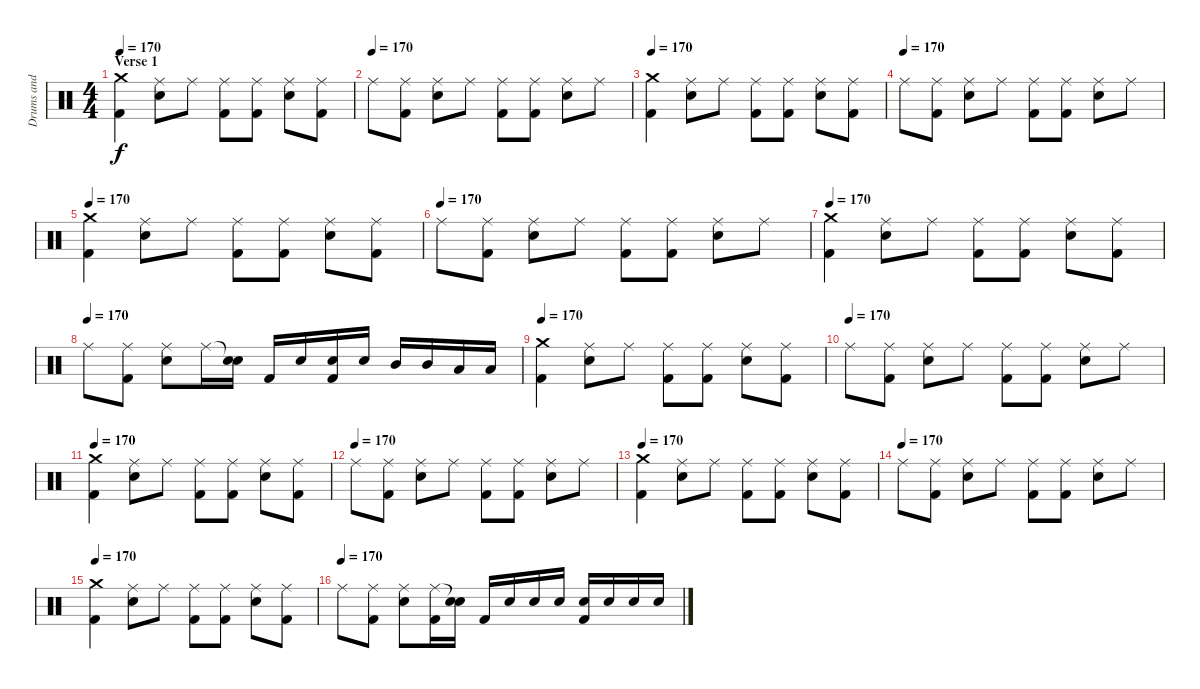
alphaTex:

\track ("Drums and Percussion" "Drums and ") {instrument percussion}
\staff {score}
\articulation defaults
\ts (4 4)
\section ("" "Verse 1")
\tempo 170
\clef neutral
\ks c
("Crash medium (hit)" "Kick (hit) 2").4{dy f} ("Ride (middle)" "Electric Snare (hit)").8 "Ride (middle)".8 ("Ride (middle)" "Kick (hit) 2").8 ("Ride (middle)" "Kick (hit) 2").8 ("Ride (middle)" "Electric Snare (hit)").8 ("Ride (middle)" "Kick (hit) 2").8 |
\tempo (170)
"Ride (middle)".8 ("Ride (middle)" "Kick (hit) 2").8 ("Ride (middle)" "Electric Snare (hit)").8 "Ride (middle)".8 ("Ride (middle)" "Kick (hit) 2").8 ("Ride (middle)" "Kick (hit) 2").8 ("Ride (middle)" "Electric Snare (hit)").8 "Ride (middle)".8 |
\tempo 170
("Crash medium (hit)" "Kick (hit) 2").4 ("Ride (middle)" "Electric Snare (hit)").8 "Ride (middle)".8 ("Ride (middle)" "Kick (hit) 2").8 ("Ride (middle)" "Kick (hit) 2").8 ("Ride (middle)" "Electric Snare (hit)").8 ("Ride (middle)" "Kick (hit) 2").8 |
\tempo (170)
"Ride (middle)".8 ("Ride (middle)" "Kick (hit) 2").8 ("Ride (middle)" "Electric Snare (hit)").8 "Ride (middle)".8 ("Ride (middle)" "Kick (hit) 2").8 ("Ride (middle)" "Kick (hit) 2").8 ("Ride (middle)" "Electric Snare (hit)").8 "Ride (middle)".8 |
\tempo 170
("Crash medium (hit)" "Kick (hit) 2").4 ("Ride (middle)" "Electric Snare (hit)").8 "Ride (middle)".8 ("Ride (middle)" "Kick (hit) 2").8 ("Ride (middle)" "Kick (hit) 2").8 ("Ride (middle)" "Electric Snare (hit)").8 ("Ride (middle)" "Kick (hit) 2").8 |
\tempo (170)
"Ride (middle)".8 ("Ride (middle)" "Kick (hit) 2").8 ("Ride (middle)" "Electric Snare (hit)").8 "Ride (middle)".8 ("Ride (middle)" "Kick (hit) 2").8 ("Ride (middle)" "Kick (hit) 2").8 ("Ride (middle)" "Electric Snare (hit)").8 "Ride (middle)".8 |
\tempo 170
("Crash medium (hit)" "Kick (hit) 2").4 ("Ride (middle)" "Electric Snare (hit)").8 "Ride (middle)".8 ("Ride (middle)" "Kick (hit) 2").8 ("Ride (middle)" "Kick (hit) 2").8 ("Ride (middle)" "Electric Snare (hit)").8 ("Ride (middle)" "Kick (hit) 2").8 |
\tempo (170)
"Ride (middle)".8 ("Ride (middle)" "Kick (hit) 2").8 ("Ride (middle)" "Electric Snare (hit)").8 "Ride (middle)".16 ("Snare (hit)"{t} "Electric Snare (hit)").16 "Kick (hit) 2".16 "Electric Snare (hit)".16 ("Electric Snare (hit)" "Kick (hit) 2").16 "Electric Snare (hit)".16 "Mid Tom (hit)".16 "Mid Tom (hit)".16 "Low Tom (hit)".16 "Low Tom (hit)".16 |
\tempo 170
("Crash medium (hit)" "Kick (hit) 2").4 ("Ride (middle)" "Electric Snare (hit)").8 "Ride (middle)".8 ("Ride (middle)" "Kick (hit) 2").8 ("Ride (middle)" "Kick (hit) 2").8 ("Ride (middle)" "Electric Snare (hit)").8 ("Ride (middle)" "Kick (hit) 2").8 |
\tempo (170)
"Ride (middle)".8 ("Ride (middle)" "Kick (hit) 2").8 ("Ride (middle)" "Electric Snare (hit)").8 "Ride (middle)".8 ("Ride (middle)" "Kick (hit) 2").8 ("Ride (middle)" "Kick (hit) 2").8 ("Ride (middle)" "Electric Snare (hit)").8 "Ride (middle)".8 |
\tempo 170
("Crash medium (hit)" "Kick (hit) 2").4 ("Ride (middle)" "Electric Snare (hit)").8 "Ride (middle)".8 ("Ride (middle)" "Kick (hit) 2").8 ("Ride (middle)" "Kick (hit) 2").8 ("Ride (middle)" "Electric Snare (hit)").8 ("Ride (middle)" "Kick (hit) 2").8 |
\tempo (170)
"Ride (middle)".8 ("Ride (middle)" "Kick (hit) 2").8 ("Ride (middle)" "Electric Snare (hit)").8 "Ride (middle)".8 ("Ride (middle)" "Kick (hit) 2").8 ("Ride (middle)" "Kick (hit) 2").8 ("Ride (middle)" "Electric Snare (hit)").8 "Ride (middle)".8 |
\tempo 170
("Crash medium (hit)" "Kick (hit) 2").4 ("Ride (middle)" "Electric Snare (hit)").8 "Ride (middle)".8 ("Ride (middle)" "Kick (hit) 2").8 ("Ride (middle)" "Kick (hit) 2").8 ("Ride (middle)" "Electric Snare (hit)").8 ("Ride (middle)" "Kick (hit) 2").8 |
\tempo (170)
"Ride (middle)".8 ("Ride (middle)" "Kick (hit) 2").8 ("Ride (middle)" "Electric Snare (hit)").8 "Ride (middle)".8 ("Ride (middle)" "Kick (hit) 2").8 ("Ride (middle)" "Kick (hit) 2").8 ("Ride (middle)" "Electric Snare (hit)").8 "Ride (middle)".8 |
\tempo 170
("Crash medium (hit)" "Kick (hit) 2").4 ("Ride (middle)" "Electric Snare (hit)").8 "Ride (middle)".8 ("Ride (middle)" "Kick (hit) 2").8 ("Ride (middle)" "Kick (hit) 2").8 ("Ride (middle)" "Electric Snare (hit)").8 ("Ride (middle)" "Kick (hit) 2").8 |
\tempo (170)
"Ride (middle)".8 ("Ride (middle)" "Kick (hit) 2").8 ("Ride (middle)" "Electric Snare (hit)").8 ("Ride (middle)" "Kick (hit) 2").16 ("Snare (hit)"{t} "Electric Snare (hit)").16 "Kick (hit) 2".16 "Electric Snare (hit)".16 "Electric Snare (hit)".16 "Electric Snare (hit)".16 ("Electric Snare (hit)" "Kick (hit) 2").16 "Electric Snare (hit)".16 "Electric Snare (hit)".16 "Electric Snare (hit)".16
